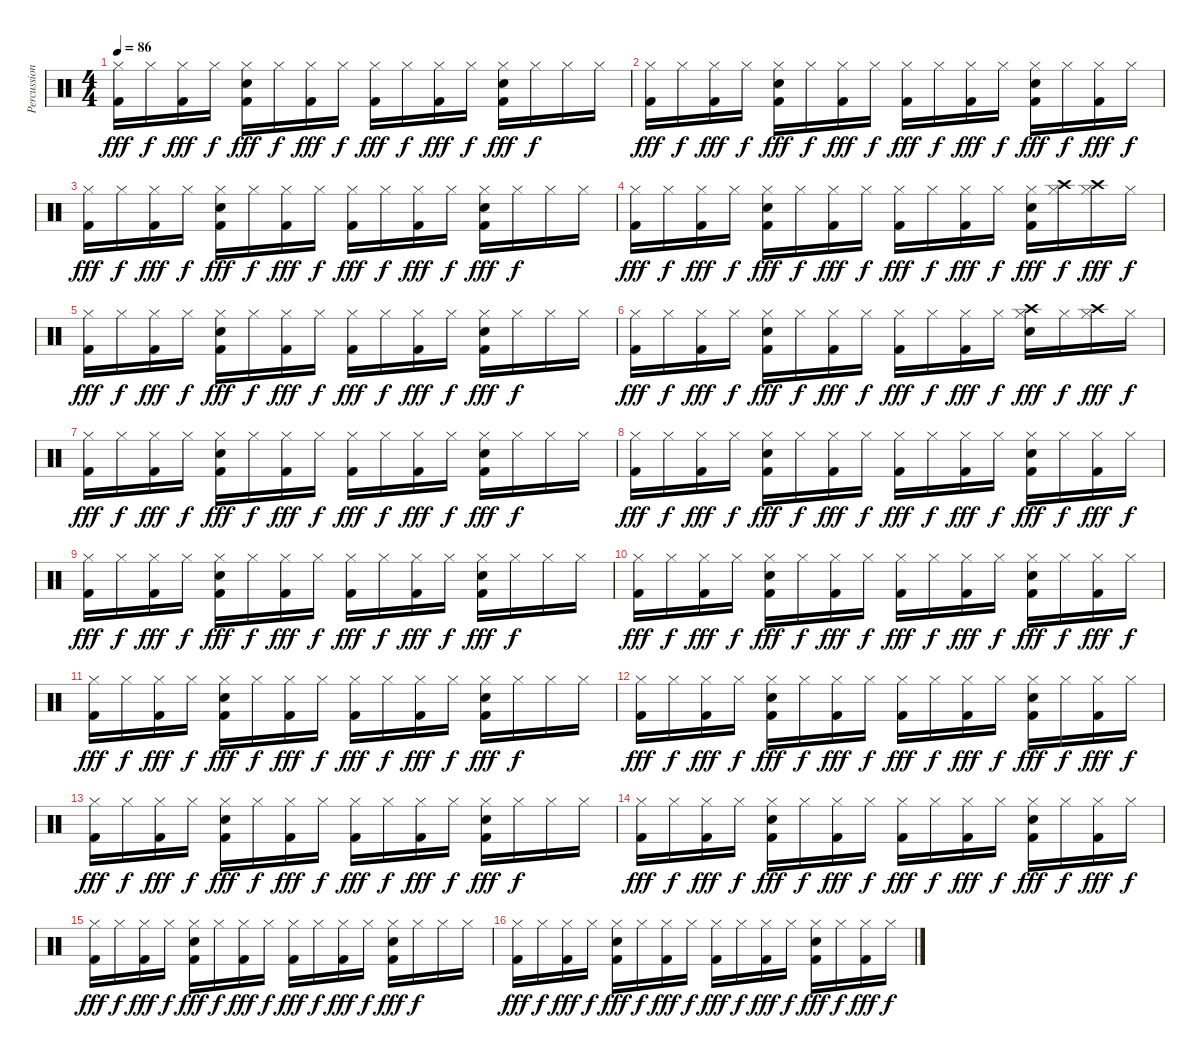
\track ("Percussion" "Percussion") {instrument percussion}
\staff {score}
\articulation defaults
\ts (4 4)
\tempo 86
\clef neutral
\ks c
("Hi-Hat (closed)" "Kick (hit) 2").16{dy fff} "Hi-Hat (closed)".16{dy f} ("Hi-Hat (closed)" "Kick (hit) 2").16{dy fff} "Hi-Hat (closed)".16{dy f} ("Hi-Hat (closed)" "Electric Snare (hit)" "Kick (hit) 2").16{dy fff} "Hi-Hat (closed)".16{dy f} ("Hi-Hat (closed)" "Kick (hit) 2").16{dy fff} "Hi-Hat (closed)".16{dy f} ("Hi-Hat (closed)" "Kick (hit) 2").16{dy fff} "Hi-Hat (closed)".16{dy f} ("Hi-Hat (closed)" "Kick (hit) 2").16{dy fff} "Hi-Hat (closed)".16{dy f} ("Hi-Hat (closed)" "Electric Snare (hit)" "Kick (hit) 2").16{dy fff} "Hi-Hat (closed)".16{dy f} "Hi-Hat (closed)".16 "Hi-Hat (closed)".16 |
("Hi-Hat (closed)" "Kick (hit) 2").16{dy fff} "Hi-Hat (closed)".16{dy f} ("Hi-Hat (closed)" "Kick (hit) 2").16{dy fff} "Hi-Hat (closed)".16{dy f} ("Hi-Hat (closed)" "Electric Snare (hit)" "Kick (hit) 2").16{dy fff} "Hi-Hat (closed)".16{dy f} ("Hi-Hat (closed)" "Kick (hit) 2").16{dy fff} "Hi-Hat (closed)".16{dy f} ("Hi-Hat (closed)" "Kick (hit) 2").16{dy fff} "Hi-Hat (closed)".16{dy f} ("Hi-Hat (closed)" "Kick (hit) 2").16{dy fff} "Hi-Hat (closed)".16{dy f} ("Hi-Hat (closed)" "Electric Snare (hit)" "Kick (hit) 2").16{dy fff} "Hi-Hat (closed)".16{dy f} ("Hi-Hat (closed)" "Kick (hit) 2").16{dy fff} "Hi-Hat (closed)".16{dy f} |
("Hi-Hat (closed)" "Kick (hit) 2").16{dy fff} "Hi-Hat (closed)".16{dy f} ("Hi-Hat (closed)" "Kick (hit) 2").16{dy fff} "Hi-Hat (closed)".16{dy f} ("Hi-Hat (closed)" "Electric Snare (hit)" "Kick (hit) 2").16{dy fff} "Hi-Hat (closed)".16{dy f} ("Hi-Hat (closed)" "Kick (hit) 2").16{dy fff} "Hi-Hat (closed)".16{dy f} ("Hi-Hat (closed)" "Kick (hit) 2").16{dy fff} "Hi-Hat (closed)".16{dy f} ("Hi-Hat (closed)" "Kick (hit) 2").16{dy fff} "Hi-Hat (closed)".16{dy f} ("Hi-Hat (closed)" "Electric Snare (hit)" "Kick (hit) 2").16{dy fff} "Hi-Hat (closed)".16{dy f} "Hi-Hat (closed)".16 "Hi-Hat (closed)".16 |
("Hi-Hat (closed)" "Kick (hit) 2").16{dy fff} "Hi-Hat (closed)".16{dy f} ("Hi-Hat (closed)" "Kick (hit) 2").16{dy fff} "Hi-Hat (closed)".16{dy f} ("Hi-Hat (closed)" "Electric Snare (hit)" "Kick (hit) 2").16{dy fff} "Hi-Hat (closed)".16{dy f} ("Hi-Hat (closed)" "Kick (hit) 2").16{dy fff} "Hi-Hat (closed)".16{dy f} ("Hi-Hat (closed)" "Kick (hit) 2").16{dy fff} "Hi-Hat (closed)".16{dy f} ("Hi-Hat (closed)" "Kick (hit) 2").16{dy fff} "Hi-Hat (closed)".16{dy f} ("Hi-Hat (closed)" "Electric Snare (hit)" "Kick (hit) 2").16{dy fff} ("Hi-Hat (closed)" "Crash high (hit)").16{dy f} ("Hi-Hat (closed)" "Crash high (hit)").16{dy fff} "Hi-Hat (closed)".16{dy f} |
("Hi-Hat (closed)" "Kick (hit) 2").16{dy fff} "Hi-Hat (closed)".16{dy f} ("Hi-Hat (closed)" "Kick (hit) 2").16{dy fff} "Hi-Hat (closed)".16{dy f} ("Hi-Hat (closed)" "Electric Snare (hit)" "Kick (hit) 2").16{dy fff} "Hi-Hat (closed)".16{dy f} ("Hi-Hat (closed)" "Kick (hit) 2").16{dy fff} "Hi-Hat (closed)".16{dy f} ("Hi-Hat (closed)" "Kick (hit) 2").16{dy fff} "Hi-Hat (closed)".16{dy f} ("Hi-Hat (closed)" "Kick (hit) 2").16{dy fff} "Hi-Hat (closed)".16{dy f} ("Hi-Hat (closed)" "Electric Snare (hit)" "Kick (hit) 2").16{dy fff} "Hi-Hat (closed)".16{dy f} "Hi-Hat (closed)".16 "Hi-Hat (closed)".16 |
("Hi-Hat (closed)" "Kick (hit) 2").16{dy fff} "Hi-Hat (closed)".16{dy f} ("Hi-Hat (closed)" "Kick (hit) 2").16{dy fff} "Hi-Hat (closed)".16{dy f} ("Hi-Hat (closed)" "Electric Snare (hit)" "Kick (hit) 2").16{dy fff} "Hi-Hat (closed)".16{dy f} ("Hi-Hat (closed)" "Kick (hit) 2").16{dy fff} "Hi-Hat (closed)".16{dy f} ("Hi-Hat (closed)" "Kick (hit) 2").16{dy fff} "Hi-Hat (closed)".16{dy f} ("Hi-Hat (closed)" "Kick (hit) 2").16{dy fff} "Hi-Hat (closed)".16{dy f} ("Hi-Hat (closed)" "Electric Snare (hit)" "Crash high (hit)").16{dy fff} "Hi-Hat (closed)".16{dy f} ("Hi-Hat (closed)" "Crash high (hit)").16{dy fff} "Hi-Hat (closed)".16{dy f} |
("Hi-Hat (closed)" "Kick (hit) 2").16{dy fff} "Hi-Hat (closed)".16{dy f} ("Hi-Hat (closed)" "Kick (hit) 2").16{dy fff} "Hi-Hat (closed)".16{dy f} ("Hi-Hat (closed)" "Electric Snare (hit)" "Kick (hit) 2").16{dy fff} "Hi-Hat (closed)".16{dy f} ("Hi-Hat (closed)" "Kick (hit) 2").16{dy fff} "Hi-Hat (closed)".16{dy f} ("Hi-Hat (closed)" "Kick (hit) 2").16{dy fff} "Hi-Hat (closed)".16{dy f} ("Hi-Hat (closed)" "Kick (hit) 2").16{dy fff} "Hi-Hat (closed)".16{dy f} ("Hi-Hat (closed)" "Electric Snare (hit)" "Kick (hit) 2").16{dy fff} "Hi-Hat (closed)".16{dy f} "Hi-Hat (closed)".16 "Hi-Hat (closed)".16 |
("Hi-Hat (closed)" "Kick (hit) 2").16{dy fff} "Hi-Hat (closed)".16{dy f} ("Hi-Hat (closed)" "Kick (hit) 2").16{dy fff} "Hi-Hat (closed)".16{dy f} ("Hi-Hat (closed)" "Electric Snare (hit)" "Kick (hit) 2").16{dy fff} "Hi-Hat (closed)".16{dy f} ("Hi-Hat (closed)" "Kick (hit) 2").16{dy fff} "Hi-Hat (closed)".16{dy f} ("Hi-Hat (closed)" "Kick (hit) 2").16{dy fff} "Hi-Hat (closed)".16{dy f} ("Hi-Hat (closed)" "Kick (hit) 2").16{dy fff} "Hi-Hat (closed)".16{dy f} ("Hi-Hat (closed)" "Electric Snare (hit)" "Kick (hit) 2").16{dy fff} "Hi-Hat (closed)".16{dy f} ("Hi-Hat (closed)" "Kick (hit) 2").16{dy fff} "Hi-Hat (closed)".16{dy f} |
("Hi-Hat (closed)" "Kick (hit) 2").16{dy fff} "Hi-Hat (closed)".16{dy f} ("Hi-Hat (closed)" "Kick (hit) 2").16{dy fff} "Hi-Hat (closed)".16{dy f} ("Hi-Hat (closed)" "Electric Snare (hit)" "Kick (hit) 2").16{dy fff} "Hi-Hat (closed)".16{dy f} ("Hi-Hat (closed)" "Kick (hit) 2").16{dy fff} "Hi-Hat (closed)".16{dy f} ("Hi-Hat (closed)" "Kick (hit) 2").16{dy fff} "Hi-Hat (closed)".16{dy f} ("Hi-Hat (closed)" "Kick (hit) 2").16{dy fff} "Hi-Hat (closed)".16{dy f} ("Hi-Hat (closed)" "Electric Snare (hit)" "Kick (hit) 2").16{dy fff} "Hi-Hat (closed)".16{dy f} "Hi-Hat (closed)".16 "Hi-Hat (closed)".16 |
("Hi-Hat (closed)" "Kick (hit) 2").16{dy fff} "Hi-Hat (closed)".16{dy f} ("Hi-Hat (closed)" "Kick (hit) 2").16{dy fff} "Hi-Hat (closed)".16{dy f} ("Hi-Hat (closed)" "Electric Snare (hit)" "Kick (hit) 2").16{dy fff} "Hi-Hat (closed)".16{dy f} ("Hi-Hat (closed)" "Kick (hit) 2").16{dy fff} "Hi-Hat (closed)".16{dy f} ("Hi-Hat (closed)" "Kick (hit) 2").16{dy fff} "Hi-Hat (closed)".16{dy f} ("Hi-Hat (closed)" "Kick (hit) 2").16{dy fff} "Hi-Hat (closed)".16{dy f} ("Hi-Hat (closed)" "Electric Snare (hit)" "Kick (hit) 2").16{dy fff} "Hi-Hat (closed)".16{dy f} ("Hi-Hat (closed)" "Kick (hit) 2").16{dy fff} "Hi-Hat (closed)".16{dy f} |
("Hi-Hat (closed)" "Kick (hit) 2").16{dy fff} "Hi-Hat (closed)".16{dy f} ("Hi-Hat (closed)" "Kick (hit) 2").16{dy fff} "Hi-Hat (closed)".16{dy f} ("Hi-Hat (closed)" "Electric Snare (hit)" "Kick (hit) 2").16{dy fff} "Hi-Hat (closed)".16{dy f} ("Hi-Hat (closed)" "Kick (hit) 2").16{dy fff} "Hi-Hat (closed)".16{dy f} ("Hi-Hat (closed)" "Kick (hit) 2").16{dy fff} "Hi-Hat (closed)".16{dy f} ("Hi-Hat (closed)" "Kick (hit) 2").16{dy fff} "Hi-Hat (closed)".16{dy f} ("Hi-Hat (closed)" "Electric Snare (hit)" "Kick (hit) 2").16{dy fff} "Hi-Hat (closed)".16{dy f} "Hi-Hat (closed)".16 "Hi-Hat (closed)".16 |
("Hi-Hat (closed)" "Kick (hit) 2").16{dy fff} "Hi-Hat (closed)".16{dy f} ("Hi-Hat (closed)" "Kick (hit) 2").16{dy fff} "Hi-Hat (closed)".16{dy f} ("Hi-Hat (closed)" "Electric Snare (hit)" "Kick (hit) 2").16{dy fff} "Hi-Hat (closed)".16{dy f} ("Hi-Hat (closed)" "Kick (hit) 2").16{dy fff} "Hi-Hat (closed)".16{dy f} ("Hi-Hat (closed)" "Kick (hit) 2").16{dy fff} "Hi-Hat (closed)".16{dy f} ("Hi-Hat (closed)" "Kick (hit) 2").16{dy fff} "Hi-Hat (closed)".16{dy f} ("Hi-Hat (closed)" "Electric Snare (hit)" "Kick (hit) 2").16{dy fff} "Hi-Hat (closed)".16{dy f} ("Hi-Hat (closed)" "Kick (hit) 2").16{dy fff} "Hi-Hat (closed)".16{dy f} |
("Hi-Hat (closed)" "Kick (hit) 2").16{dy fff} "Hi-Hat (closed)".16{dy f} ("Hi-Hat (closed)" "Kick (hit) 2").16{dy fff} "Hi-Hat (closed)".16{dy f} ("Hi-Hat (closed)" "Electric Snare (hit)" "Kick (hit) 2").16{dy fff} "Hi-Hat (closed)".16{dy f} ("Hi-Hat (closed)" "Kick (hit) 2").16{dy fff} "Hi-Hat (closed)".16{dy f} ("Hi-Hat (closed)" "Kick (hit) 2").16{dy fff} "Hi-Hat (closed)".16{dy f} ("Hi-Hat (closed)" "Kick (hit) 2").16{dy fff} "Hi-Hat (closed)".16{dy f} ("Hi-Hat (closed)" "Electric Snare (hit)" "Kick (hit) 2").16{dy fff} "Hi-Hat (closed)".16{dy f} "Hi-Hat (closed)".16 "Hi-Hat (closed)".16 |
("Hi-Hat (closed)" "Kick (hit) 2").16{dy fff} "Hi-Hat (closed)".16{dy f} ("Hi-Hat (closed)" "Kick (hit) 2").16{dy fff} "Hi-Hat (closed)".16{dy f} ("Hi-Hat (closed)" "Electric Snare (hit)" "Kick (hit) 2").16{dy fff} "Hi-Hat (closed)".16{dy f} ("Hi-Hat (closed)" "Kick (hit) 2").16{dy fff} "Hi-Hat (closed)".16{dy f} ("Hi-Hat (closed)" "Kick (hit) 2").16{dy fff} "Hi-Hat (closed)".16{dy f} ("Hi-Hat (closed)" "Kick (hit) 2").16{dy fff} "Hi-Hat (closed)".16{dy f} ("Hi-Hat (closed)" "Electric Snare (hit)" "Kick (hit) 2").16{dy fff} "Hi-Hat (closed)".16{dy f} ("Hi-Hat (closed)" "Kick (hit) 2").16{dy fff} "Hi-Hat (closed)".16{dy f} |
("Hi-Hat (closed)" "Kick (hit) 2").16{dy fff} "Hi-Hat (closed)".16{dy f} ("Hi-Hat (closed)" "Kick (hit) 2").16{dy fff} "Hi-Hat (closed)".16{dy f} ("Hi-Hat (closed)" "Electric Snare (hit)" "Kick (hit) 2").16{dy fff} "Hi-Hat (closed)".16{dy f} ("Hi-Hat (closed)" "Kick (hit) 2").16{dy fff} "Hi-Hat (closed)".16{dy f} ("Hi-Hat (closed)" "Kick (hit) 2").16{dy fff} "Hi-Hat (closed)".16{dy f} ("Hi-Hat (closed)" "Kick (hit) 2").16{dy fff} "Hi-Hat (closed)".16{dy f} ("Hi-Hat (closed)" "Electric Snare (hit)" "Kick (hit) 2").16{dy fff} "Hi-Hat (closed)".16{dy f} "Hi-Hat (closed)".16 "Hi-Hat (closed)".16 |
("Hi-Hat (closed)" "Kick (hit) 2").16{dy fff} "Hi-Hat (closed)".16{dy f} ("Hi-Hat (closed)" "Kick (hit) 2").16{dy fff} "Hi-Hat (closed)".16{dy f} ("Hi-Hat (closed)" "Electric Snare (hit)" "Kick (hit) 2").16{dy fff} "Hi-Hat (closed)".16{dy f} ("Hi-Hat (closed)" "Kick (hit) 2").16{dy fff} "Hi-Hat (closed)".16{dy f} ("Hi-Hat (closed)" "Kick (hit) 2").16{dy fff} "Hi-Hat (closed)".16{dy f} ("Hi-Hat (closed)" "Kick (hit) 2").16{dy fff} "Hi-Hat (closed)".16{dy f} ("Hi-Hat (closed)" "Electric Snare (hit)" "Kick (hit) 2").16{dy fff} "Hi-Hat (closed)".16{dy f} ("Hi-Hat (closed)" "Kick (hit) 2").16{dy fff} "Hi-Hat (closed)".16{dy f}
